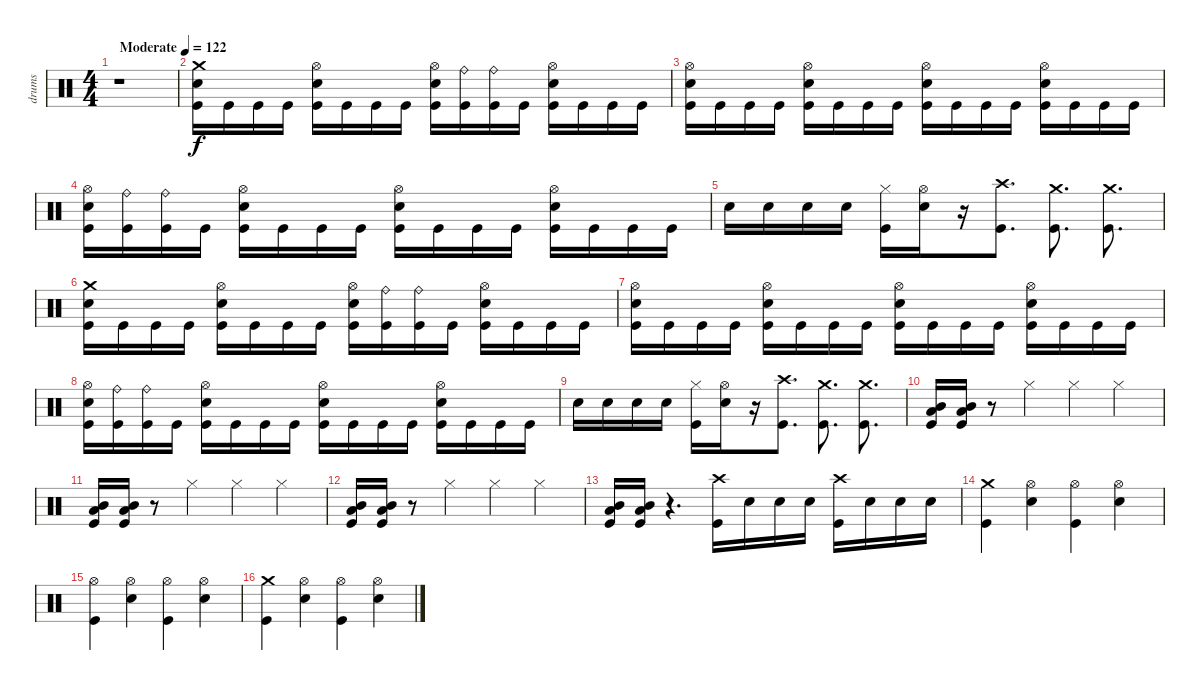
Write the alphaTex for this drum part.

\track ("drums" "drums") {instrument percussion}
\staff {score}
\articulation defaults
\ts (4 4)
\tempo (122 "Moderate")
\clef neutral
\ks c
r.1{dy f} |
("Snare (hit) 2" "Kick (hit)" "Crash medium (hit)").16 "Kick (hit)".16 "Kick (hit)".16 "Kick (hit)".16 ("Snare (hit) 2" "Kick (hit)" "Hi-Hat (open)").16 "Kick (hit)".16 "Kick (hit)".16 "Kick (hit)".16 ("Snare (hit) 2" "Kick (hit)" "Hi-Hat (open)").16 ("Kick (hit)" "Ride (bell)").16 ("Kick (hit)" "Ride (bell)").16 "Kick (hit)".16 ("Snare (hit) 2" "Kick (hit)" "Hi-Hat (open)").16 "Kick (hit)".16 "Kick (hit)".16 "Kick (hit)".16 |
("Snare (hit) 2" "Kick (hit)" "Hi-Hat (open)").16 "Kick (hit)".16 "Kick (hit)".16 "Kick (hit)".16 ("Snare (hit) 2" "Kick (hit)" "Hi-Hat (open)").16 "Kick (hit)".16 "Kick (hit)".16 "Kick (hit)".16 ("Snare (hit) 2" "Kick (hit)" "Hi-Hat (open)").16 "Kick (hit)".16 "Kick (hit)".16 "Kick (hit)".16 ("Snare (hit) 2" "Kick (hit)" "Hi-Hat (open)").16 "Kick (hit)".16 "Kick (hit)".16 "Kick (hit)".16 |
("Snare (hit) 2" "Kick (hit)" "Hi-Hat (open)").16 ("Kick (hit)" "Ride (bell)").16 ("Kick (hit)" "Ride (bell)").16 "Kick (hit)".16 ("Snare (hit) 2" "Kick (hit)" "Hi-Hat (open)").16 "Kick (hit)".16 "Kick (hit)".16 "Kick (hit)".16 ("Snare (hit) 2" "Kick (hit)" "Hi-Hat (open)").16 "Kick (hit)".16 "Kick (hit)".16 "Kick (hit)".16 ("Snare (hit) 2" "Kick (hit)" "Hi-Hat (open)").16 "Kick (hit)".16 "Kick (hit)".16 "Kick (hit)".16 |
"Snare (hit) 2".16 "Snare (hit) 2".16 "Snare (hit) 2".16 "Snare (hit) 2".16 ("Kick (hit)" "Hi-Hat (closed)").16 ("Snare (hit) 2" "Hi-Hat (open)").16 r.16 ("Kick (hit)" "Crash high (hit)").8{d} ("Kick (hit)" "Crash medium (hit)").8{d} ("Kick (hit)" "Crash medium (hit)").8{d} |
("Snare (hit) 2" "Kick (hit)" "Crash medium (hit)").16 "Kick (hit)".16 "Kick (hit)".16 "Kick (hit)".16 ("Snare (hit) 2" "Kick (hit)" "Hi-Hat (open)").16 "Kick (hit)".16 "Kick (hit)".16 "Kick (hit)".16 ("Snare (hit) 2" "Kick (hit)" "Hi-Hat (open)").16 ("Kick (hit)" "Ride (bell)").16 ("Kick (hit)" "Ride (bell)").16 "Kick (hit)".16 ("Snare (hit) 2" "Kick (hit)" "Hi-Hat (open)").16 "Kick (hit)".16 "Kick (hit)".16 "Kick (hit)".16 |
("Snare (hit) 2" "Kick (hit)" "Hi-Hat (open)").16 "Kick (hit)".16 "Kick (hit)".16 "Kick (hit)".16 ("Snare (hit) 2" "Kick (hit)" "Hi-Hat (open)").16 "Kick (hit)".16 "Kick (hit)".16 "Kick (hit)".16 ("Snare (hit) 2" "Kick (hit)" "Hi-Hat (open)").16 "Kick (hit)".16 "Kick (hit)".16 "Kick (hit)".16 ("Snare (hit) 2" "Kick (hit)" "Hi-Hat (open)").16 "Kick (hit)".16 "Kick (hit)".16 "Kick (hit)".16 |
("Snare (hit) 2" "Kick (hit)" "Hi-Hat (open)").16 ("Kick (hit)" "Ride (bell)").16 ("Kick (hit)" "Ride (bell)").16 "Kick (hit)".16 ("Snare (hit) 2" "Kick (hit)" "Hi-Hat (open)").16 "Kick (hit)".16 "Kick (hit)".16 "Kick (hit)".16 ("Snare (hit) 2" "Kick (hit)" "Hi-Hat (open)").16 "Kick (hit)".16 "Kick (hit)".16 "Kick (hit)".16 ("Snare (hit) 2" "Kick (hit)" "Hi-Hat (open)").16 "Kick (hit)".16 "Kick (hit)".16 "Kick (hit)".16 |
"Snare (hit) 2".16 "Snare (hit) 2".16 "Snare (hit) 2".16 "Snare (hit) 2".16 ("Kick (hit)" "Hi-Hat (closed)").16 ("Snare (hit) 2" "Hi-Hat (open)").16 r.16 ("Kick (hit)" "Crash high (hit)").8{d} ("Kick (hit)" "Crash medium (hit)").8{d} ("Kick (hit)" "Crash medium (hit)").8{d} |
("Kick (hit)" "Low Floor Tom (hit)" "Mid Tom (hit)").16 ("Kick (hit)" "Low Floor Tom (hit)" "Mid Tom (hit)").16 r.8 "Hi-Hat (closed)".4 "Hi-Hat (closed)".4 "Hi-Hat (closed)".4 |
("Kick (hit)" "Low Floor Tom (hit)" "Mid Tom (hit)").16 ("Kick (hit)" "Low Floor Tom (hit)" "Mid Tom (hit)").16 r.8 "Hi-Hat (closed)".4 "Hi-Hat (closed)".4 "Hi-Hat (closed)".4 |
("Kick (hit)" "Low Floor Tom (hit)" "Mid Tom (hit)").16 ("Kick (hit)" "Low Floor Tom (hit)" "Mid Tom (hit)").16 r.8 "Hi-Hat (closed)".4 "Hi-Hat (closed)".4 "Hi-Hat (closed)".4 |
("Kick (hit)" "Low Floor Tom (hit)" "Mid Tom (hit)").16 ("Kick (hit)" "Low Floor Tom (hit)" "Mid Tom (hit)").16 r.4{d} ("Kick (hit)" "Crash high (hit)").16 "Snare (hit) 2".16 "Snare (hit) 2".16 "Snare (hit) 2".16 ("Kick (hit)" "Crash high (hit)").16 "Snare (hit) 2".16 "Snare (hit) 2".16 "Snare (hit) 2".16 |
("Kick (hit)" "Crash medium (hit)").4 ("Snare (hit) 2" "Hi-Hat (open)").4 ("Kick (hit)" "Hi-Hat (open)").4 ("Snare (hit) 2" "Hi-Hat (open)").4 |
("Kick (hit)" "Hi-Hat (open)").4 ("Snare (hit) 2" "Hi-Hat (open)").4 ("Kick (hit)" "Hi-Hat (open)").4 ("Snare (hit) 2" "Hi-Hat (open)").4 |
("Kick (hit)" "Crash medium (hit)").4 ("Snare (hit) 2" "Hi-Hat (open)").4 ("Kick (hit)" "Hi-Hat (open)").4 ("Snare (hit) 2" "Hi-Hat (open)").4
